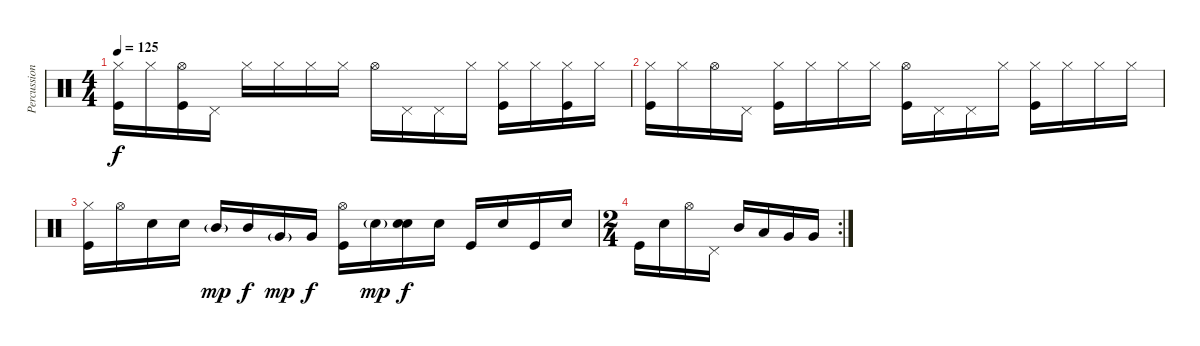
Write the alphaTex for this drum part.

\track ("Percussion" "Percussion") {instrument percussion}
\staff {score}
\articulation defaults
\ts (4 4)
\tempo 125
\clef neutral
\ks c
("Hi-Hat (closed)" "Kick (hit)").16{dy f} "Hi-Hat (closed)".16 ("Hi-Hat (open)" "Kick (hit)").16 "Pedal Hi-Hat (hit)".16 "Hi-Hat (closed)".16 "Hi-Hat (closed)".16 "Hi-Hat (closed)".16 "Hi-Hat (closed)".16 "Hi-Hat (open)".16 "Pedal Hi-Hat (hit)".16 "Pedal Hi-Hat (hit)".16 "Hi-Hat (closed)".16 ("Hi-Hat (closed)" "Kick (hit)").16 "Hi-Hat (closed)".16 ("Hi-Hat (closed)" "Kick (hit)").16 "Hi-Hat (closed)".16 |
("Hi-Hat (closed)" "Kick (hit)").16 "Hi-Hat (closed)".16 "Hi-Hat (open)".16 "Pedal Hi-Hat (hit)".16 ("Hi-Hat (closed)" "Kick (hit)").16 "Hi-Hat (closed)".16 "Hi-Hat (closed)".16 "Hi-Hat (closed)".16 ("Hi-Hat (open)" "Kick (hit)").16 "Pedal Hi-Hat (hit)".16 "Pedal Hi-Hat (hit)".16 "Hi-Hat (closed)".16 ("Hi-Hat (closed)" "Kick (hit)").16 "Hi-Hat (closed)".16 "Hi-Hat (closed)".16 "Hi-Hat (closed)".16 |
("Hi-Hat (closed)" "Kick (hit)").16 "Hi-Hat (open)".16 "Electric Snare (hit)".16 "Electric Snare (hit)".16 "Mid Tom (hit)"{g}.16{dy mp} "Mid Tom (hit)".16{dy f} "Very Low Tom (hit)"{g}.16{dy mp} "Very Low Tom (hit)".16{dy f} ("Hi-Hat (open)" "Kick (hit)").16 "Electric Snare (hit)"{g}.16{dy mp} ("Electric Snare (hit)" "Electric Snare (hit)").16{bu 480 dy f} "Electric Snare (hit)".16 "Kick (hit)".16 "Electric Snare (hit)".16 "Kick (hit)".16 "Electric Snare (hit)".16 |
\rc 2
\ts (2 4)
"Kick (hit)".16 "Electric Snare (hit)".16 "Hi-Hat (open)".16 "Pedal Hi-Hat (hit)".16 "Mid Tom (hit)".16 "Low Tom (hit)".16 "Very Low Tom (hit)".16 "Very Low Tom (hit)".16
